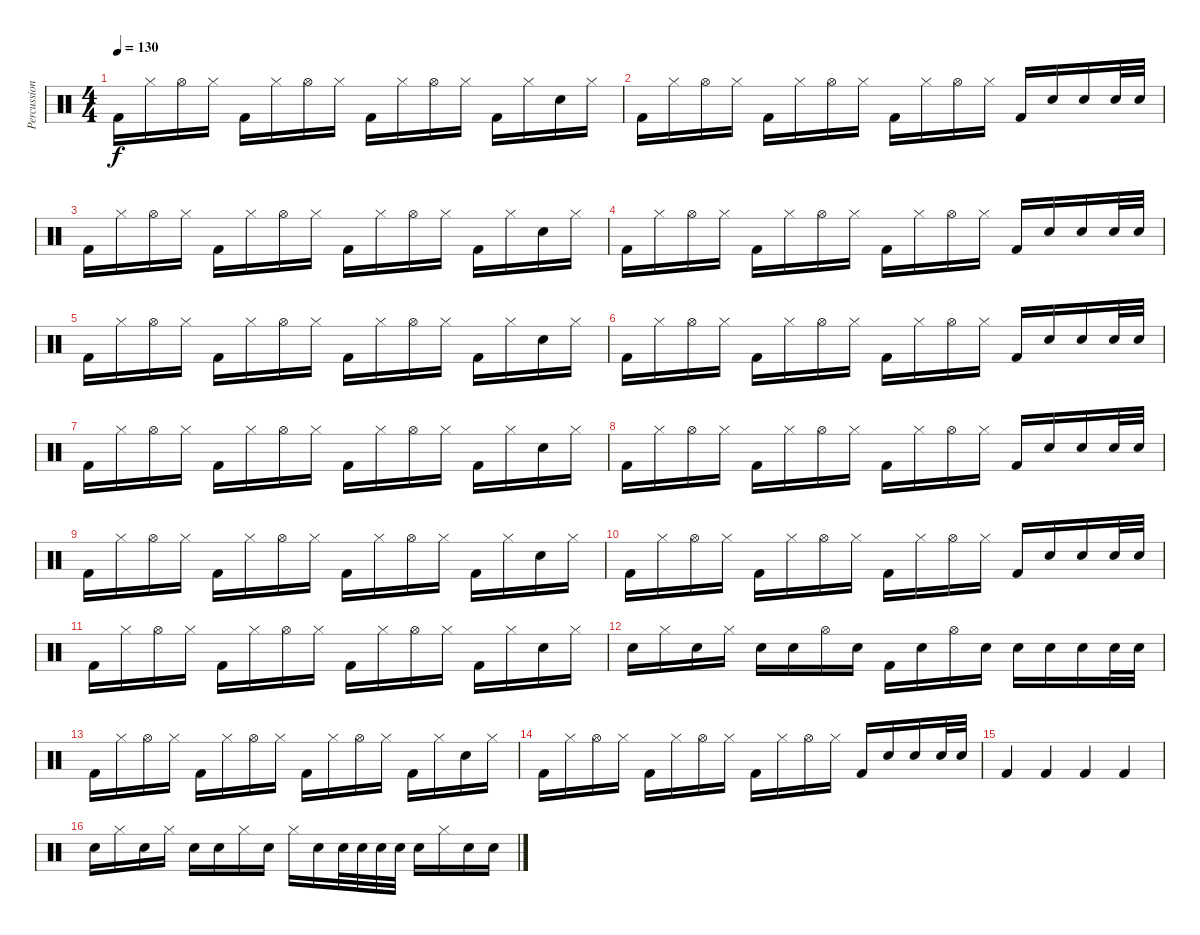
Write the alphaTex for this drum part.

\track ("Percussion" "Percussion") {instrument percussion}
\staff {score}
\articulation defaults
\ts (4 4)
\tempo 130
\clef neutral
\ks c "Kick (hit) 2".16{dy f} "Hi-Hat (closed)".16 "Hi-Hat (open)".16 "Hi-Hat (closed)".16 "Kick (hit) 2".16 "Hi-Hat (closed)".16 "Hi-Hat (open)".16 "Hi-Hat (closed)".16 "Kick (hit) 2".16 "Hi-Hat (closed)".16 "Hi-Hat (open)".16 "Hi-Hat (closed)".16 "Kick (hit) 2".16 "Hi-Hat (closed)".16 "Snare (hit) 2".16 "Hi-Hat (closed)".16
|
"Kick (hit) 2".16 "Hi-Hat (closed)".16 "Hi-Hat (open)".16 "Hi-Hat (closed)".16 "Kick (hit) 2".16 "Hi-Hat (closed)".16 "Hi-Hat (open)".16 "Hi-Hat (closed)".16 "Kick (hit) 2".16 "Hi-Hat (closed)".16 "Hi-Hat (open)".16 "Hi-Hat (closed)".16 "Kick (hit) 2".16 "Snare (hit) 2".16 "Snare (hit) 2".16 "Snare (hit) 2".32 "Snare (hit) 2".32 |
"Kick (hit) 2".16 "Hi-Hat (closed)".16 "Hi-Hat (open)".16 "Hi-Hat (closed)".16 "Kick (hit) 2".16 "Hi-Hat (closed)".16 "Hi-Hat (open)".16 "Hi-Hat (closed)".16 "Kick (hit) 2".16 "Hi-Hat (closed)".16 "Hi-Hat (open)".16 "Hi-Hat (closed)".16 "Kick (hit) 2".16 "Hi-Hat (closed)".16 "Snare (hit) 2".16 "Hi-Hat (closed)".16 |
"Kick (hit) 2".16 "Hi-Hat (closed)".16 "Hi-Hat (open)".16 "Hi-Hat (closed)".16 "Kick (hit) 2".16 "Hi-Hat (closed)".16 "Hi-Hat (open)".16 "Hi-Hat (closed)".16 "Kick (hit) 2".16 "Hi-Hat (closed)".16 "Hi-Hat (open)".16 "Hi-Hat (closed)".16 "Kick (hit) 2".16 "Snare (hit) 2".16 "Snare (hit) 2".16 "Snare (hit) 2".32 "Snare (hit) 2".32 |
"Kick (hit) 2".16 "Hi-Hat (closed)".16 "Hi-Hat (open)".16 "Hi-Hat (closed)".16 "Kick (hit) 2".16 "Hi-Hat (closed)".16 "Hi-Hat (open)".16 "Hi-Hat (closed)".16 "Kick (hit) 2".16 "Hi-Hat (closed)".16 "Hi-Hat (open)".16 "Hi-Hat (closed)".16 "Kick (hit) 2".16 "Hi-Hat (closed)".16 "Snare (hit) 2".16 "Hi-Hat (closed)".16 |
"Kick (hit) 2".16 "Hi-Hat (closed)".16 "Hi-Hat (open)".16 "Hi-Hat (closed)".16 "Kick (hit) 2".16 "Hi-Hat (closed)".16 "Hi-Hat (open)".16 "Hi-Hat (closed)".16 "Kick (hit) 2".16 "Hi-Hat (closed)".16 "Hi-Hat (open)".16 "Hi-Hat (closed)".16 "Kick (hit) 2".16 "Snare (hit) 2".16 "Snare (hit) 2".16 "Snare (hit) 2".32 "Snare (hit) 2".32 |
"Kick (hit) 2".16 "Hi-Hat (closed)".16 "Hi-Hat (open)".16 "Hi-Hat (closed)".16 "Kick (hit) 2".16 "Hi-Hat (closed)".16 "Hi-Hat (open)".16 "Hi-Hat (closed)".16 "Kick (hit) 2".16 "Hi-Hat (closed)".16 "Hi-Hat (open)".16 "Hi-Hat (closed)".16 "Kick (hit) 2".16 "Hi-Hat (closed)".16 "Snare (hit) 2".16 "Hi-Hat (closed)".16 |
"Kick (hit) 2".16 "Hi-Hat (closed)".16 "Hi-Hat (open)".16 "Hi-Hat (closed)".16 "Kick (hit) 2".16 "Hi-Hat (closed)".16 "Hi-Hat (open)".16 "Hi-Hat (closed)".16 "Kick (hit) 2".16 "Hi-Hat (closed)".16 "Hi-Hat (open)".16 "Hi-Hat (closed)".16 "Kick (hit) 2".16 "Snare (hit) 2".16 "Snare (hit) 2".16 "Snare (hit) 2".32 "Snare (hit) 2".32 |
"Kick (hit) 2".16 "Hi-Hat (closed)".16 "Hi-Hat (open)".16 "Hi-Hat (closed)".16 "Kick (hit) 2".16 "Hi-Hat (closed)".16 "Hi-Hat (open)".16 "Hi-Hat (closed)".16 "Kick (hit) 2".16 "Hi-Hat (closed)".16 "Hi-Hat (open)".16 "Hi-Hat (closed)".16 "Kick (hit) 2".16 "Hi-Hat (closed)".16 "Snare (hit) 2".16 "Hi-Hat (closed)".16 |
"Kick (hit) 2".16 "Hi-Hat (closed)".16 "Hi-Hat (open)".16 "Hi-Hat (closed)".16 "Kick (hit) 2".16 "Hi-Hat (closed)".16 "Hi-Hat (open)".16 "Hi-Hat (closed)".16 "Kick (hit) 2".16 "Hi-Hat (closed)".16 "Hi-Hat (open)".16 "Hi-Hat (closed)".16 "Kick (hit) 2".16 "Snare (hit) 2".16 "Snare (hit) 2".16 "Snare (hit) 2".32 "Snare (hit) 2".32 |
"Kick (hit) 2".16 "Hi-Hat (closed)".16 "Hi-Hat (open)".16 "Hi-Hat (closed)".16 "Kick (hit) 2".16 "Hi-Hat (closed)".16 "Hi-Hat (open)".16 "Hi-Hat (closed)".16 "Kick (hit) 2".16 "Hi-Hat (closed)".16 "Hi-Hat (open)".16 "Hi-Hat (closed)".16 "Kick (hit) 2".16 "Hi-Hat (closed)".16 "Snare (hit) 2".16 "Hi-Hat (closed)".16 |
"Snare (hit) 2".16 "Hi-Hat (closed)".16 "Snare (hit) 2".16 "Hi-Hat (closed)".16 "Snare (hit) 2".16 "Snare (hit) 2".16 "Hi-Hat (open)".16 "Snare (hit) 2".16 "Kick (hit) 2".16 "Snare (hit) 2".16 "Hi-Hat (open)".16 "Snare (hit) 2".16 "Snare (hit) 2".16 "Snare (hit) 2".16 "Snare (hit) 2".16 "Snare (hit) 2".32 "Snare (hit) 2".32 |
"Kick (hit) 2".16 "Hi-Hat (closed)".16 "Hi-Hat (open)".16 "Hi-Hat (closed)".16 "Kick (hit) 2".16 "Hi-Hat (closed)".16 "Hi-Hat (open)".16 "Hi-Hat (closed)".16 "Kick (hit) 2".16 "Hi-Hat (closed)".16 "Hi-Hat (open)".16 "Hi-Hat (closed)".16 "Kick (hit) 2".16 "Hi-Hat (closed)".16 "Snare (hit) 2".16 "Hi-Hat (closed)".16 |
"Kick (hit) 2".16 "Hi-Hat (closed)".16 "Hi-Hat (open)".16 "Hi-Hat (closed)".16 "Kick (hit) 2".16 "Hi-Hat (closed)".16 "Hi-Hat (open)".16 "Hi-Hat (closed)".16 "Kick (hit) 2".16 "Hi-Hat (closed)".16 "Hi-Hat (open)".16 "Hi-Hat (closed)".16 "Kick (hit) 2".16 "Snare (hit) 2".16 "Snare (hit) 2".16 "Snare (hit) 2".32 "Snare (hit) 2".32 |
"Kick (hit) 2".4 "Kick (hit) 2".4 "Kick (hit) 2".4 "Kick (hit) 2".4 |
"Snare (hit) 2".16 "Hi-Hat (closed)".16 "Snare (hit) 2".16 "Hi-Hat (closed)".16 "Snare (hit) 2".16 "Snare (hit) 2".16 "Hi-Hat (closed)".16 "Snare (hit) 2".16 "Hi-Hat (closed)".16 "Snare (hit) 2".16 "Snare (hit) 2".32 "Snare (hit) 2".32 "Snare (hit) 2".32 "Snare (hit) 2".32 "Snare (hit) 2".16 "Hi-Hat (closed)".16 "Snare (hit) 2".16 "Snare (hit) 2".16
